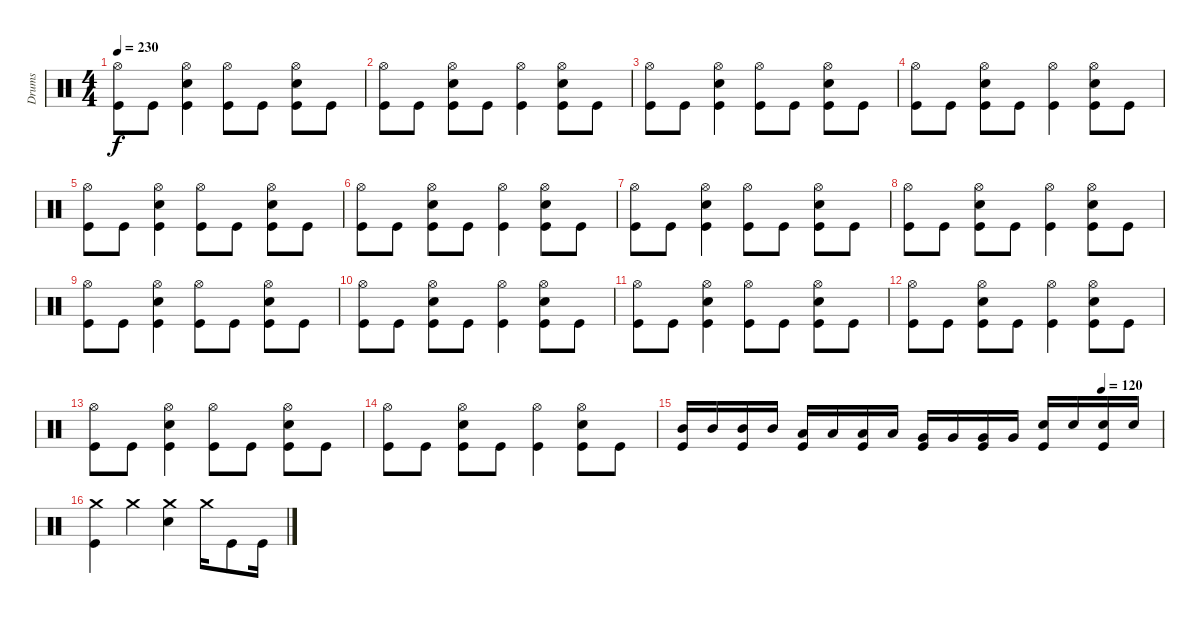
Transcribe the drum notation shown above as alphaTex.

\track ("Drums" "Drums") {instrument percussion}
\staff {score}
\articulation defaults
\ts (4 4)
\tempo 230
\clef neutral
\ks c
("Hi-Hat (open)" "Kick (hit)").8{dy f} "Kick (hit)".8 ("Hi-Hat (open)" "Snare (hit) 2" "Kick (hit)").4 ("Hi-Hat (open)" "Kick (hit)").8 "Kick (hit)".8 ("Hi-Hat (open)" "Snare (hit) 2" "Kick (hit)").8 "Kick (hit)".8 |
("Hi-Hat (open)" "Kick (hit)").8 "Kick (hit)".8 ("Hi-Hat (open)" "Snare (hit) 2" "Kick (hit)").8 "Kick (hit)".8 ("Hi-Hat (open)" "Kick (hit)").4 ("Hi-Hat (open)" "Snare (hit) 2" "Kick (hit)").8 "Kick (hit)".8 |
("Hi-Hat (open)" "Kick (hit)").8 "Kick (hit)".8 ("Hi-Hat (open)" "Snare (hit) 2" "Kick (hit)").4 ("Hi-Hat (open)" "Kick (hit)").8 "Kick (hit)".8 ("Hi-Hat (open)" "Snare (hit) 2" "Kick (hit)").8 "Kick (hit)".8 |
("Hi-Hat (open)" "Kick (hit)").8 "Kick (hit)".8 ("Hi-Hat (open)" "Snare (hit) 2" "Kick (hit)").8 "Kick (hit)".8 ("Hi-Hat (open)" "Kick (hit)").4 ("Hi-Hat (open)" "Snare (hit) 2" "Kick (hit)").8 "Kick (hit)".8 |
("Hi-Hat (open)" "Kick (hit)").8 "Kick (hit)".8 ("Hi-Hat (open)" "Snare (hit) 2" "Kick (hit)").4 ("Hi-Hat (open)" "Kick (hit)").8 "Kick (hit)".8 ("Hi-Hat (open)" "Snare (hit) 2" "Kick (hit)").8 "Kick (hit)".8 |
("Hi-Hat (open)" "Kick (hit)").8 "Kick (hit)".8 ("Hi-Hat (open)" "Snare (hit) 2" "Kick (hit)").8 "Kick (hit)".8 ("Hi-Hat (open)" "Kick (hit)").4 ("Hi-Hat (open)" "Snare (hit) 2" "Kick (hit)").8 "Kick (hit)".8 |
("Hi-Hat (open)" "Kick (hit)").8 "Kick (hit)".8 ("Hi-Hat (open)" "Snare (hit) 2" "Kick (hit)").4 ("Hi-Hat (open)" "Kick (hit)").8 "Kick (hit)".8 ("Hi-Hat (open)" "Snare (hit) 2" "Kick (hit)").8 "Kick (hit)".8 |
("Hi-Hat (open)" "Kick (hit)").8 "Kick (hit)".8 ("Hi-Hat (open)" "Snare (hit) 2" "Kick (hit)").8 "Kick (hit)".8 ("Hi-Hat (open)" "Kick (hit)").4 ("Hi-Hat (open)" "Snare (hit) 2" "Kick (hit)").8 "Kick (hit)".8 |
("Hi-Hat (open)" "Kick (hit)").8 "Kick (hit)".8 ("Hi-Hat (open)" "Snare (hit) 2" "Kick (hit)").4 ("Hi-Hat (open)" "Kick (hit)").8 "Kick (hit)".8 ("Hi-Hat (open)" "Snare (hit) 2" "Kick (hit)").8 "Kick (hit)".8 |
("Hi-Hat (open)" "Kick (hit)").8 "Kick (hit)".8 ("Hi-Hat (open)" "Snare (hit) 2" "Kick (hit)").8 "Kick (hit)".8 ("Hi-Hat (open)" "Kick (hit)").4 ("Hi-Hat (open)" "Snare (hit) 2" "Kick (hit)").8 "Kick (hit)".8 |
("Hi-Hat (open)" "Kick (hit)").8 "Kick (hit)".8 ("Hi-Hat (open)" "Snare (hit) 2" "Kick (hit)").4 ("Hi-Hat (open)" "Kick (hit)").8 "Kick (hit)".8 ("Hi-Hat (open)" "Snare (hit) 2" "Kick (hit)").8 "Kick (hit)".8 |
("Hi-Hat (open)" "Kick (hit)").8 "Kick (hit)".8 ("Hi-Hat (open)" "Snare (hit) 2" "Kick (hit)").8 "Kick (hit)".8 ("Hi-Hat (open)" "Kick (hit)").4 ("Hi-Hat (open)" "Snare (hit) 2" "Kick (hit)").8 "Kick (hit)".8 |
("Hi-Hat (open)" "Kick (hit)").8 "Kick (hit)".8 ("Hi-Hat (open)" "Snare (hit) 2" "Kick (hit)").4 ("Hi-Hat (open)" "Kick (hit)").8 "Kick (hit)".8 ("Hi-Hat (open)" "Snare (hit) 2" "Kick (hit)").8 "Kick (hit)".8 |
("Hi-Hat (open)" "Kick (hit)").8 "Kick (hit)".8 ("Hi-Hat (open)" "Snare (hit) 2" "Kick (hit)").8 "Kick (hit)".8 ("Hi-Hat (open)" "Kick (hit)").4 ("Hi-Hat (open)" "Snare (hit) 2" "Kick (hit)").8 "Kick (hit)".8 |
\tempo (120 0.875)
("Mid Tom (hit)" "Kick (hit)").16 "Mid Tom (hit)".16 ("Mid Tom (hit)" "Kick (hit)").16 "Mid Tom (hit)".16 ("Low Tom (hit)" "Kick (hit)").16 "Low Tom (hit)".16 ("Low Tom (hit)" "Kick (hit)").16 "Low Tom (hit)".16 ("Very Low Tom (hit)" "Kick (hit)").16 "Very Low Tom (hit)".16 ("Very Low Tom (hit)" "Kick (hit)").16 "Very Low Tom (hit)".16 ("Snare (hit) 2" "Kick (hit)").16 "Snare (hit) 2".16 ("Snare (hit) 2" "Kick (hit)").16 "Snare (hit) 2".16 |
("Crash medium (hit)" "Kick (hit)").4 "Crash medium (hit)".4 ("Crash medium (hit)" "Snare (hit) 2").4 "Crash medium (hit)".16 "Kick (hit)".8 "Kick (hit)".16
